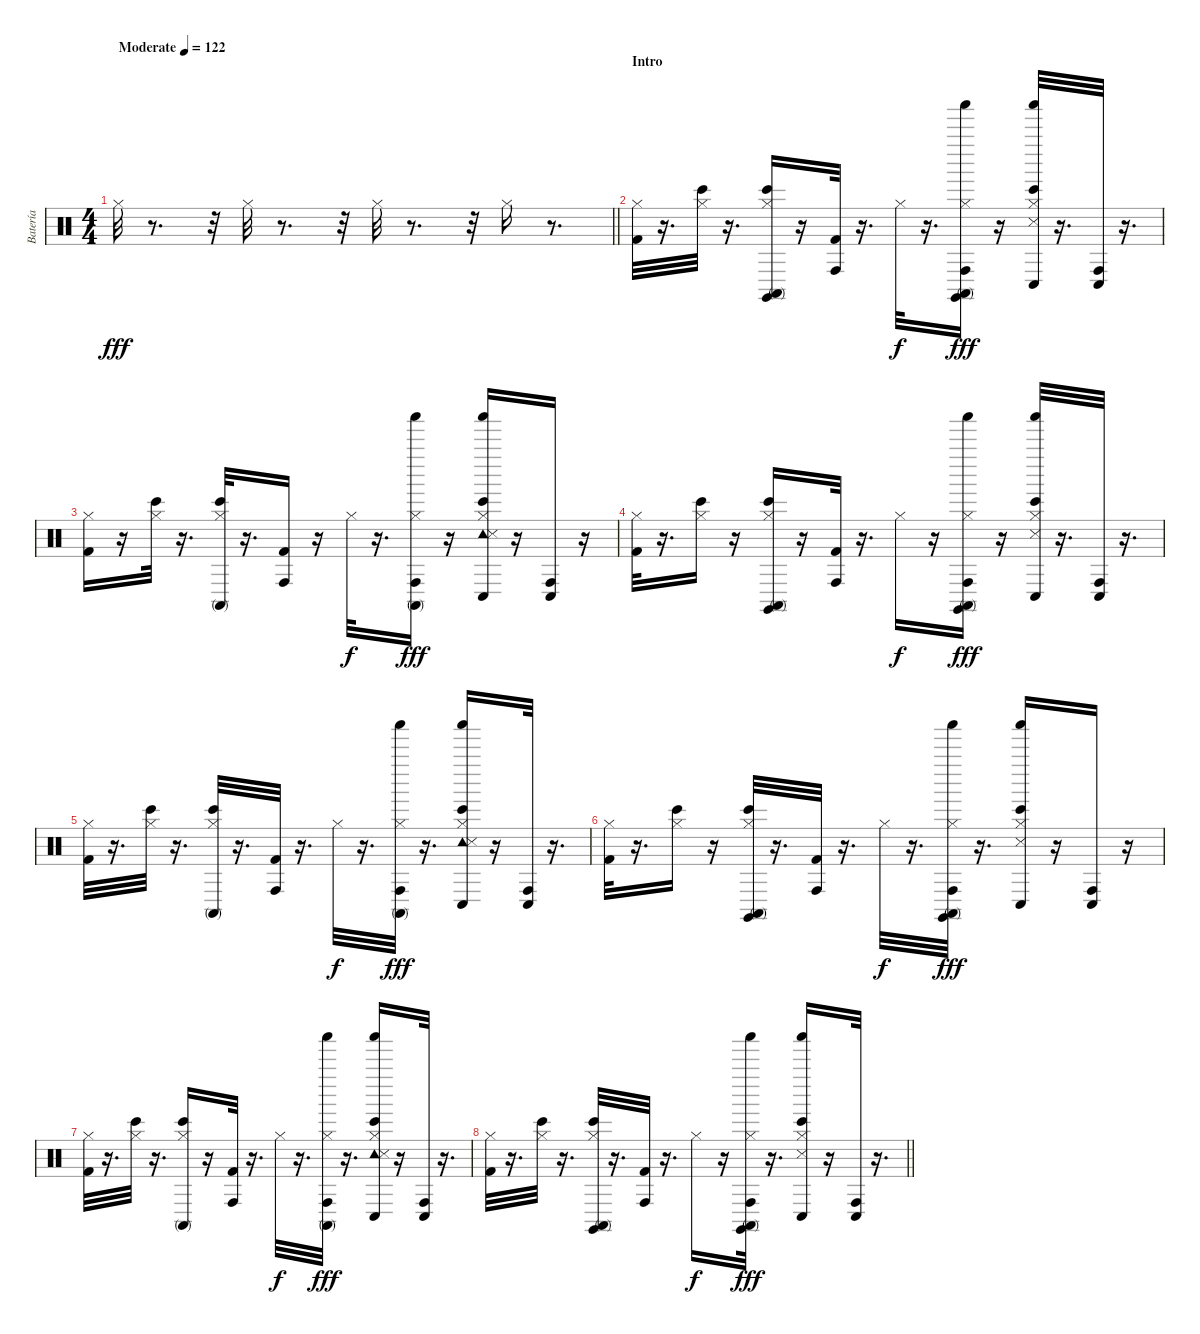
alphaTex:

\track ("Batería" "Batería") {instrument percussion}
\staff {score}
\articulation defaults
\ts (4 4)
\tempo (122 "Moderate")
\clef neutral
\barLineRight lightlight
\ks c "Hi-Hat (closed)".32{dy fff}
r.8{d} r.32 "Hi-Hat (closed)".32 r.8{d} r.32 "Hi-Hat (closed)".32 r.8{d} r.32 "Hi-Hat (closed)".16 r.8{d} |
\section ("" "Intro")
("Hi-Hat (closed)" "Kick (hit) 2").32 r.16{d} ("Bongo High (hit)" "Hi-Hat (closed)").32 r.16{d} ("Claves (hit)" "Bongo High (hit)" "Conga high (mute)" "Hi-Hat (closed)").16 r.16 ("Conga high (hit)" "Kick (hit) 2").32 r.16{d} "Hi-Hat (closed)".32{dy f} r.16{d} ("Claves (hit)" "Conga high (hit)" "Conga high (mute)" "Shaker (hit)" "Hi-Hat (closed)").16{dy fff} r.16 ("Snare (side stick) 3" "Bongo High (hit)" "Conga low (hit)" "Shaker (hit)" "Hi-Hat (closed)").32 r.16{d} ("Conga high (hit)" "Conga low (hit)").32 r.16{d} |
("Hi-Hat (closed)" "Kick (hit) 2").16 r.16 ("Bongo High (hit)" "Hi-Hat (closed)").32 r.16{d} ("Bongo High (hit)" "Conga high (mute)" "Hi-Hat (closed)").32 r.16{d} ("Conga high (hit)" "Kick (hit) 2").16 r.16 "Hi-Hat (closed)".32{dy f} r.16{d} ("Conga high (hit)" "Conga high (mute)" "Shaker (hit)" "Hi-Hat (closed)").16{dy fff} r.16 ("Tambourine (hit)" "Snare (side stick) 3" "Bongo High (hit)" "Conga low (hit)" "Shaker (hit)" "Hi-Hat (closed)").16 r.16 ("Conga high (hit)" "Conga low (hit)").16 r.16 |
("Hi-Hat (closed)" "Kick (hit) 2").32 r.16{d} ("Bongo High (hit)" "Hi-Hat (closed)").16 r.16 ("Claves (hit)" "Bongo High (hit)" "Conga high (mute)" "Hi-Hat (closed)").16 r.16 ("Conga high (hit)" "Kick (hit) 2").32 r.16{d} "Hi-Hat (closed)".16{dy f} r.16 ("Claves (hit)" "Conga high (hit)" "Conga high (mute)" "Shaker (hit)" "Hi-Hat (closed)").16{dy fff} r.16 ("Snare (side stick) 3" "Bongo High (hit)" "Conga low (hit)" "Shaker (hit)" "Hi-Hat (closed)").32 r.16{d} ("Conga high (hit)" "Conga low (hit)").32 r.16{d} |
("Hi-Hat (closed)" "Kick (hit) 2").32 r.16{d} ("Bongo High (hit)" "Hi-Hat (closed)").32 r.16{d} ("Bongo High (hit)" "Conga high (mute)" "Hi-Hat (closed)").32 r.16{d} ("Conga high (hit)" "Kick (hit) 2").32 r.16{d} "Hi-Hat (closed)".32{dy f} r.16{d} ("Conga high (hit)" "Conga high (mute)" "Shaker (hit)" "Hi-Hat (closed)").32{dy fff} r.16{d} ("Tambourine (hit)" "Snare (side stick) 3" "Bongo High (hit)" "Conga low (hit)" "Shaker (hit)" "Hi-Hat (closed)").16 r.16 ("Conga high (hit)" "Conga low (hit)").32 r.16{d} |
("Hi-Hat (closed)" "Kick (hit) 2").32 r.16{d} ("Bongo High (hit)" "Hi-Hat (closed)").16 r.16 ("Claves (hit)" "Bongo High (hit)" "Conga high (mute)" "Hi-Hat (closed)").32 r.16{d} ("Conga high (hit)" "Kick (hit) 2").32 r.16{d} "Hi-Hat (closed)".32{dy f} r.16{d} ("Claves (hit)" "Conga high (hit)" "Conga high (mute)" "Shaker (hit)" "Hi-Hat (closed)").32{dy fff} r.16{d} ("Snare (side stick) 3" "Bongo High (hit)" "Conga low (hit)" "Shaker (hit)" "Hi-Hat (closed)").16 r.16 ("Conga high (hit)" "Conga low (hit)").16 r.16 |
("Hi-Hat (closed)" "Kick (hit) 2").32 r.16{d} ("Bongo High (hit)" "Hi-Hat (closed)").32 r.16{d} ("Bongo High (hit)" "Conga high (mute)" "Hi-Hat (closed)").16 r.16 ("Conga high (hit)" "Kick (hit) 2").32 r.16{d} "Hi-Hat (closed)".32{dy f} r.16{d} ("Conga high (hit)" "Conga high (mute)" "Shaker (hit)" "Hi-Hat (closed)").32{dy fff} r.16{d} ("Tambourine (hit)" "Snare (side stick) 3" "Bongo High (hit)" "Conga low (hit)" "Shaker (hit)" "Hi-Hat (closed)").16 r.16 ("Conga high (hit)" "Conga low (hit)").32 r.16{d} |
\barLineRight lightlight
("Hi-Hat (closed)" "Kick (hit) 2").32 r.16{d} ("Bongo High (hit)" "Hi-Hat (closed)").32 r.16{d} ("Claves (hit)" "Bongo High (hit)" "Conga high (mute)" "Hi-Hat (closed)").32 r.16{d} ("Conga high (hit)" "Kick (hit) 2").32 r.16{d} "Hi-Hat (closed)".16{dy f} r.16 ("Claves (hit)" "Conga high (hit)" "Conga high (mute)" "Shaker (hit)" "Hi-Hat (closed)").32{dy fff} r.16{d} ("Snare (side stick) 3" "Bongo High (hit)" "Conga low (hit)" "Shaker (hit)" "Hi-Hat (closed)").16 r.16 ("Conga high (hit)" "Conga low (hit)").32 r.16{d}
